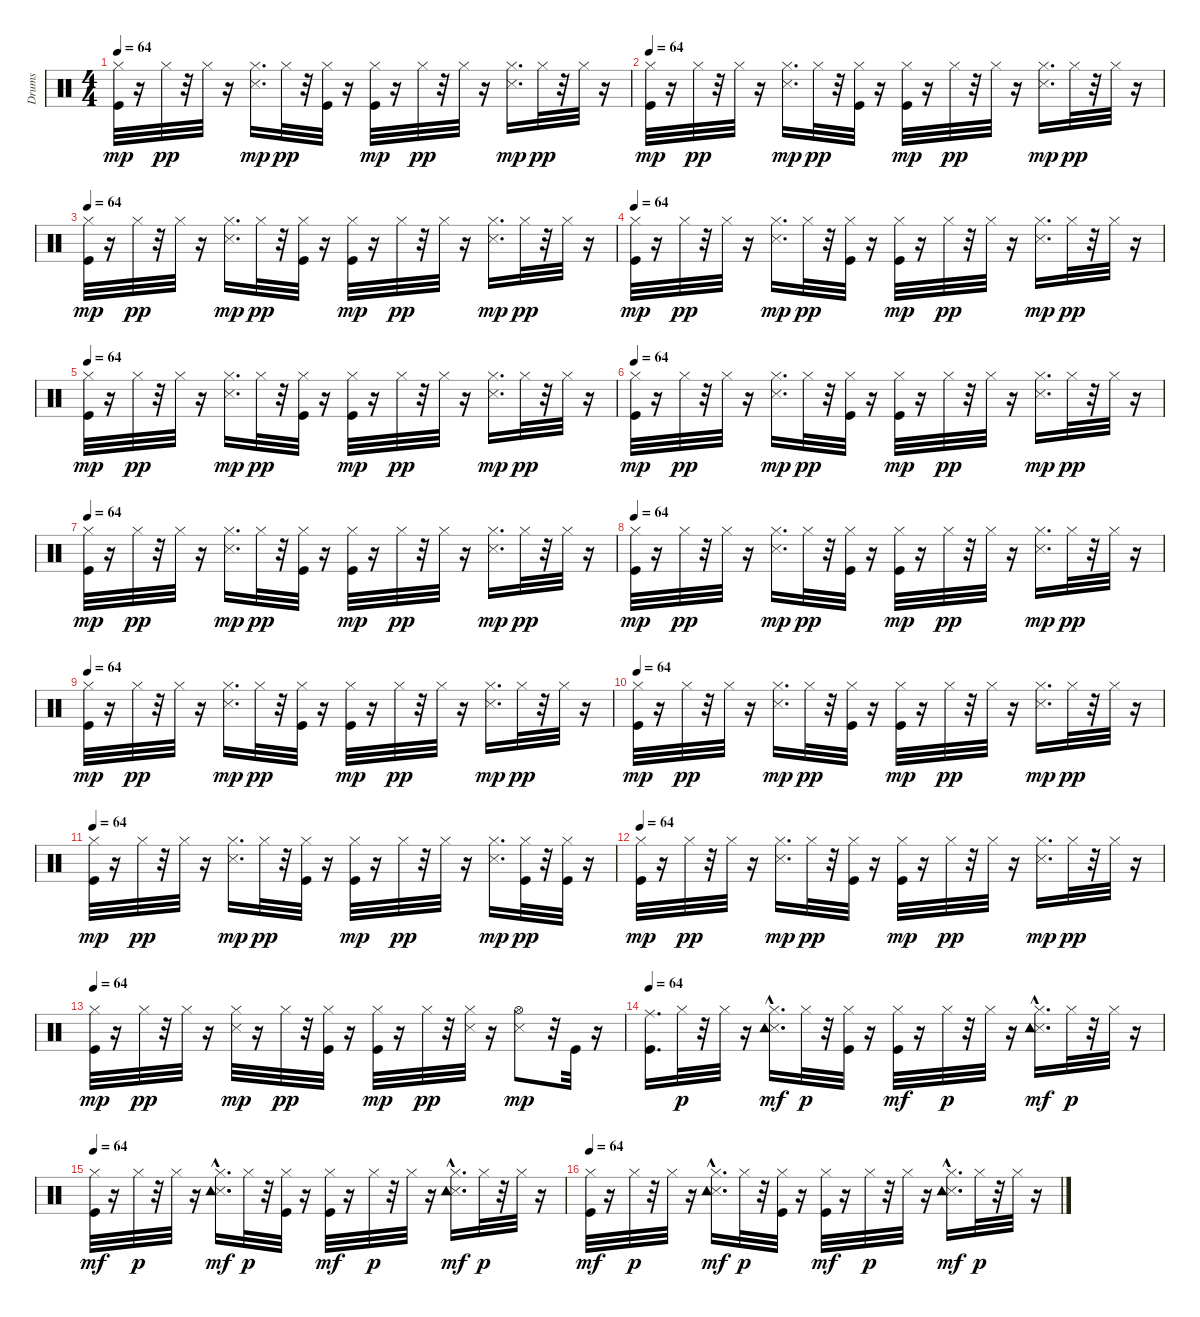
\track ("Drums" "Drums") {instrument percussion}
\staff {score}
\articulation defaults
\ts (4 4)
\tempo 64
\clef neutral
\ks c
("Kick (hit)" "Hi-Hat (closed)").32{dy mp} r.16 "Hi-Hat (closed)".32{dy pp} r.32 "Hi-Hat (closed)".32 r.16 ("Hi-Hat (closed)" "Snare (side stick) 3").16{d dy mp} "Hi-Hat (closed)".32{dy pp} r.32 ("Kick (hit)" "Hi-Hat (closed)").32 r.16 ("Kick (hit)" "Hi-Hat (closed)").32{dy mp} r.16 "Hi-Hat (closed)".32{dy pp} r.32 "Hi-Hat (closed)".32 r.16 ("Hi-Hat (closed)" "Snare (side stick) 3").16{d dy mp} "Hi-Hat (closed)".32{dy pp} r.32 "Hi-Hat (closed)".32 r.16 |
\tempo 64
("Kick (hit)" "Hi-Hat (closed)").32{dy mp} r.16 "Hi-Hat (closed)".32{dy pp} r.32 "Hi-Hat (closed)".32 r.16 ("Hi-Hat (closed)" "Snare (side stick) 3").16{d dy mp} "Hi-Hat (closed)".32{dy pp} r.32 ("Kick (hit)" "Hi-Hat (closed)").32 r.16 ("Kick (hit)" "Hi-Hat (closed)").32{dy mp} r.16 "Hi-Hat (closed)".32{dy pp} r.32 "Hi-Hat (closed)".32 r.16 ("Hi-Hat (closed)" "Snare (side stick) 3").16{d dy mp} "Hi-Hat (closed)".32{dy pp} r.32 "Hi-Hat (closed)".32 r.16 |
\tempo 64
("Kick (hit)" "Hi-Hat (closed)").32{dy mp} r.16 "Hi-Hat (closed)".32{dy pp} r.32 "Hi-Hat (closed)".32 r.16 ("Hi-Hat (closed)" "Snare (side stick) 3").16{d dy mp} "Hi-Hat (closed)".32{dy pp} r.32 ("Kick (hit)" "Hi-Hat (closed)").32 r.16 ("Kick (hit)" "Hi-Hat (closed)").32{dy mp} r.16 "Hi-Hat (closed)".32{dy pp} r.32 "Hi-Hat (closed)".32 r.16 ("Hi-Hat (closed)" "Snare (side stick) 3").16{d dy mp} "Hi-Hat (closed)".32{dy pp} r.32 "Hi-Hat (closed)".32 r.16 |
\tempo 64
("Kick (hit)" "Hi-Hat (closed)").32{dy mp} r.16 "Hi-Hat (closed)".32{dy pp} r.32 "Hi-Hat (closed)".32 r.16 ("Hi-Hat (closed)" "Snare (side stick) 3").16{d dy mp} "Hi-Hat (closed)".32{dy pp} r.32 ("Kick (hit)" "Hi-Hat (closed)").32 r.16 ("Kick (hit)" "Hi-Hat (closed)").32{dy mp} r.16 "Hi-Hat (closed)".32{dy pp} r.32 "Hi-Hat (closed)".32 r.16 ("Hi-Hat (closed)" "Snare (side stick) 3").16{d dy mp} "Hi-Hat (closed)".32{dy pp} r.32 "Hi-Hat (closed)".32 r.16 |
\tempo 64
("Kick (hit)" "Hi-Hat (closed)").32{dy mp} r.16 "Hi-Hat (closed)".32{dy pp} r.32 "Hi-Hat (closed)".32 r.16 ("Hi-Hat (closed)" "Snare (side stick) 3").16{d dy mp} "Hi-Hat (closed)".32{dy pp} r.32 ("Kick (hit)" "Hi-Hat (closed)").32 r.16 ("Kick (hit)" "Hi-Hat (closed)").32{dy mp} r.16 "Hi-Hat (closed)".32{dy pp} r.32 "Hi-Hat (closed)".32 r.16 ("Hi-Hat (closed)" "Snare (side stick) 3").16{d dy mp} "Hi-Hat (closed)".32{dy pp} r.32 "Hi-Hat (closed)".32 r.16 |
\tempo 64
("Kick (hit)" "Hi-Hat (closed)").32{dy mp} r.16 "Hi-Hat (closed)".32{dy pp} r.32 "Hi-Hat (closed)".32 r.16 ("Hi-Hat (closed)" "Snare (side stick) 3").16{d dy mp} "Hi-Hat (closed)".32{dy pp} r.32 ("Kick (hit)" "Hi-Hat (closed)").32 r.16 ("Kick (hit)" "Hi-Hat (closed)").32{dy mp} r.16 "Hi-Hat (closed)".32{dy pp} r.32 "Hi-Hat (closed)".32 r.16 ("Hi-Hat (closed)" "Snare (side stick) 3").16{d dy mp} "Hi-Hat (closed)".32{dy pp} r.32 "Hi-Hat (closed)".32 r.16 |
\tempo 64
("Kick (hit)" "Hi-Hat (closed)").32{dy mp} r.16 "Hi-Hat (closed)".32{dy pp} r.32 "Hi-Hat (closed)".32 r.16 ("Hi-Hat (closed)" "Snare (side stick) 3").16{d dy mp} "Hi-Hat (closed)".32{dy pp} r.32 ("Kick (hit)" "Hi-Hat (closed)").32 r.16 ("Kick (hit)" "Hi-Hat (closed)").32{dy mp} r.16 "Hi-Hat (closed)".32{dy pp} r.32 "Hi-Hat (closed)".32 r.16 ("Hi-Hat (closed)" "Snare (side stick) 3").16{d dy mp} "Hi-Hat (closed)".32{dy pp} r.32 "Hi-Hat (closed)".32 r.16 |
\tempo 64
("Kick (hit)" "Hi-Hat (closed)").32{dy mp} r.16 "Hi-Hat (closed)".32{dy pp} r.32 "Hi-Hat (closed)".32 r.16 ("Hi-Hat (closed)" "Snare (side stick) 3").16{d dy mp} "Hi-Hat (closed)".32{dy pp} r.32 ("Kick (hit)" "Hi-Hat (closed)").32 r.16 ("Kick (hit)" "Hi-Hat (closed)").32{dy mp} r.16 "Hi-Hat (closed)".32{dy pp} r.32 "Hi-Hat (closed)".32 r.16 ("Hi-Hat (closed)" "Snare (side stick) 3").16{d dy mp} "Hi-Hat (closed)".32{dy pp} r.32 "Hi-Hat (closed)".32 r.16 |
\tempo 64
("Kick (hit)" "Hi-Hat (closed)").32{dy mp} r.16 "Hi-Hat (closed)".32{dy pp} r.32 "Hi-Hat (closed)".32 r.16 ("Hi-Hat (closed)" "Snare (side stick) 3").16{d dy mp} "Hi-Hat (closed)".32{dy pp} r.32 ("Kick (hit)" "Hi-Hat (closed)").32 r.16 ("Kick (hit)" "Hi-Hat (closed)").32{dy mp} r.16 "Hi-Hat (closed)".32{dy pp} r.32 "Hi-Hat (closed)".32 r.16 ("Hi-Hat (closed)" "Snare (side stick) 3").16{d dy mp} "Hi-Hat (closed)".32{dy pp} r.32 "Hi-Hat (closed)".32 r.16 |
\tempo 64
("Kick (hit)" "Hi-Hat (closed)").32{dy mp} r.16 "Hi-Hat (closed)".32{dy pp} r.32 "Hi-Hat (closed)".32 r.16 ("Hi-Hat (closed)" "Snare (side stick) 3").16{d dy mp} "Hi-Hat (closed)".32{dy pp} r.32 ("Kick (hit)" "Hi-Hat (closed)").32 r.16 ("Kick (hit)" "Hi-Hat (closed)").32{dy mp} r.16 "Hi-Hat (closed)".32{dy pp} r.32 "Hi-Hat (closed)".32 r.16 ("Hi-Hat (closed)" "Snare (side stick) 3").16{d dy mp} "Hi-Hat (closed)".32{dy pp} r.32 "Hi-Hat (closed)".32 r.16 |
\tempo 64
("Kick (hit)" "Hi-Hat (closed)").32{dy mp} r.16 "Hi-Hat (closed)".32{dy pp} r.32 "Hi-Hat (closed)".32 r.16 ("Hi-Hat (closed)" "Snare (side stick) 3").16{d dy mp} "Hi-Hat (closed)".32{dy pp} r.32 ("Kick (hit)" "Hi-Hat (closed)").32 r.16 ("Kick (hit)" "Hi-Hat (closed)").32{dy mp} r.16 "Hi-Hat (closed)".32{dy pp} r.32 "Hi-Hat (closed)".32 r.16 ("Hi-Hat (closed)" "Snare (side stick) 3").16{d dy mp} ("Kick (hit)" "Hi-Hat (closed)").32{dy pp} r.32 ("Kick (hit)" "Hi-Hat (closed)").32 r.16 |
\tempo 64
("Kick (hit)" "Hi-Hat (closed)").32{dy mp} r.16 "Hi-Hat (closed)".32{dy pp} r.32 "Hi-Hat (closed)".32 r.16 ("Hi-Hat (closed)" "Snare (side stick) 3").16{d dy mp} "Hi-Hat (closed)".32{dy pp} r.32 ("Kick (hit)" "Hi-Hat (closed)").32 r.16 ("Kick (hit)" "Hi-Hat (closed)").32{dy mp} r.16 "Hi-Hat (closed)".32{dy pp} r.32 "Hi-Hat (closed)".32 r.16 ("Hi-Hat (closed)" "Snare (side stick) 3").16{d dy mp} "Hi-Hat (closed)".32{dy pp} r.32 "Hi-Hat (closed)".32 r.16 |
\tempo 64
("Kick (hit)" "Hi-Hat (closed)").32{dy mp} r.16 "Hi-Hat (closed)".32{dy pp} r.32 "Hi-Hat (closed)".32 r.16 ("Hi-Hat (closed)" "Snare (side stick) 3").32{dy mp} r.16 "Hi-Hat (closed)".32{dy pp} r.32 ("Kick (hit)" "Hi-Hat (closed)").32 r.16 ("Kick (hit)" "Hi-Hat (closed)").32{dy mp} r.16 "Hi-Hat (closed)".32{dy pp} r.32 ("Snare (side stick) 3" "Hi-Hat (closed)").32 r.16 ("Hi-Hat (open)" "Snare (side stick) 3").8{dy mp} r.32 "Kick (hit)".32 r.16 |
\tempo 64
("Kick (hit)" "Ride (middle)").16{d} "Hi-Hat (closed)".32{dy p} r.32 "Hi-Hat (closed)".32 r.16 ("Hi-Hat (closed)" "Snare (side stick) 3" "Tambourine (hit)"{hac} "Tambourine (hit)").16{d dy mf} "Hi-Hat (closed)".32{dy p} r.32 ("Kick (hit)" "Hi-Hat (closed)").32 r.16 ("Kick (hit)" "Hi-Hat (closed)").32{dy mf} r.16 "Hi-Hat (closed)".32{dy p} r.32 "Hi-Hat (closed)".32 r.16 ("Hi-Hat (closed)" "Snare (side stick) 3" "Tambourine (hit)"{hac} "Tambourine (hit)").16{d dy mf} "Hi-Hat (closed)".32{dy p} r.32 "Hi-Hat (closed)".32 r.16 |
\tempo 64
("Kick (hit)" "Hi-Hat (closed)").32{dy mf} r.16 "Hi-Hat (closed)".32{dy p} r.32 "Hi-Hat (closed)".32 r.16 ("Hi-Hat (closed)" "Snare (side stick) 3" "Tambourine (hit)"{hac} "Tambourine (hit)").16{d dy mf} "Hi-Hat (closed)".32{dy p} r.32 ("Kick (hit)" "Hi-Hat (closed)").32 r.16 ("Kick (hit)" "Hi-Hat (closed)").32{dy mf} r.16 "Hi-Hat (closed)".32{dy p} r.32 "Hi-Hat (closed)".32 r.16 ("Hi-Hat (closed)" "Snare (side stick) 3" "Tambourine (hit)"{hac} "Tambourine (hit)").16{d dy mf} "Hi-Hat (closed)".32{dy p} r.32 "Hi-Hat (closed)".32 r.16 |
\tempo 64
("Kick (hit)" "Hi-Hat (closed)").32{dy mf} r.16 "Hi-Hat (closed)".32{dy p} r.32 "Hi-Hat (closed)".32 r.16 ("Hi-Hat (closed)" "Snare (side stick) 3" "Tambourine (hit)"{hac} "Tambourine (hit)").16{d dy mf} "Hi-Hat (closed)".32{dy p} r.32 ("Kick (hit)" "Hi-Hat (closed)").32 r.16 ("Kick (hit)" "Hi-Hat (closed)").32{dy mf} r.16 "Hi-Hat (closed)".32{dy p} r.32 "Hi-Hat (closed)".32 r.16 ("Hi-Hat (closed)" "Snare (side stick) 3" "Tambourine (hit)"{hac} "Tambourine (hit)").16{d dy mf} "Hi-Hat (closed)".32{dy p} r.32 "Hi-Hat (closed)".32 r.16
